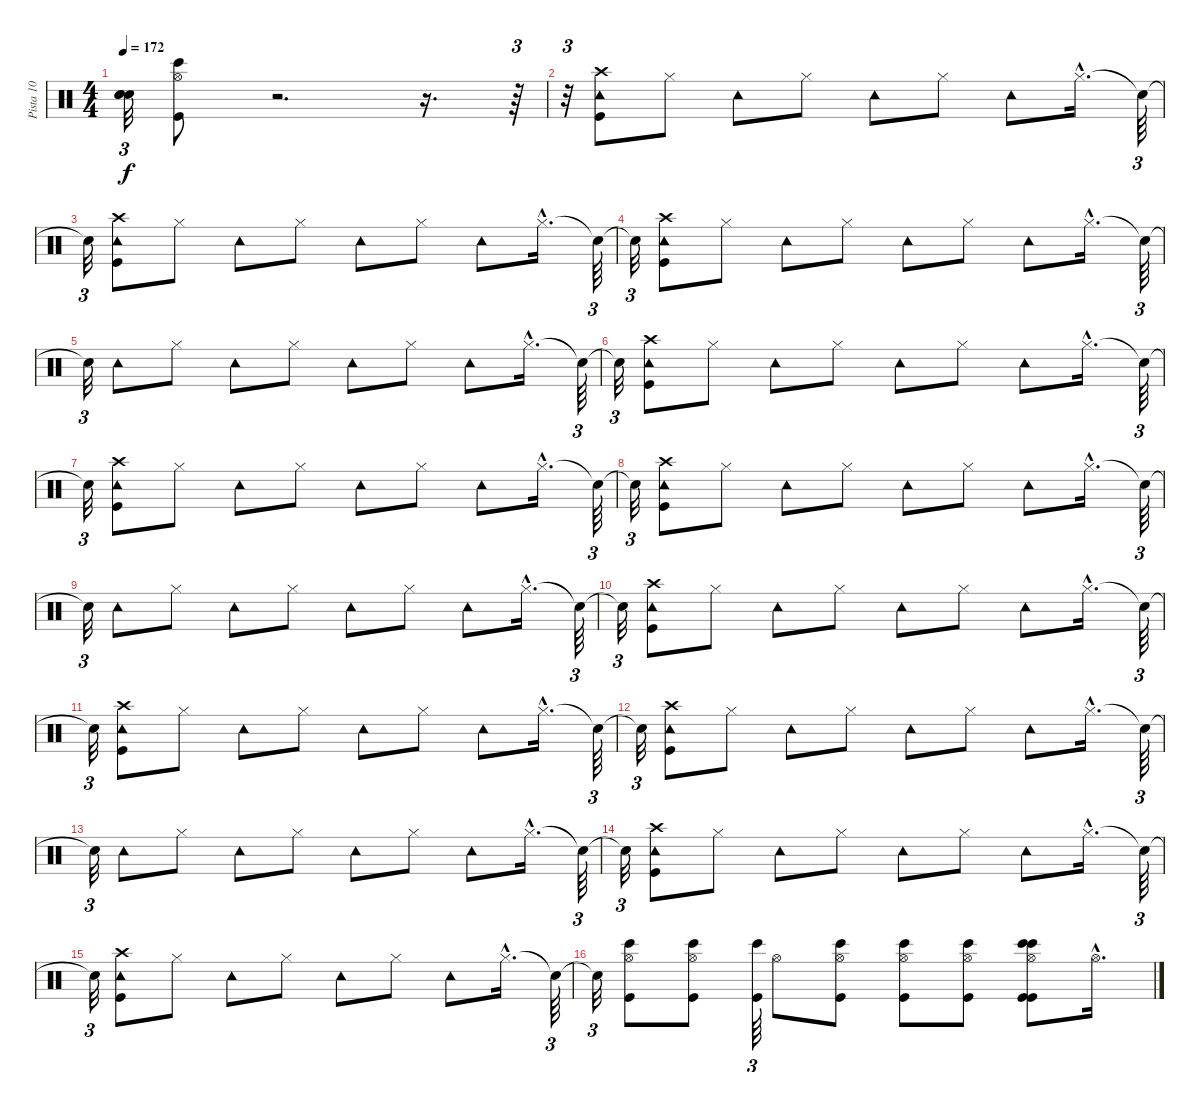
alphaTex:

\track ("Pista 10" "Pista 10") {instrument percussion}
\staff {score}
\articulation defaults
\ts (4 4)
\tempo 172
\clef neutral
\ks c
("Snare (hit)"{t} "Snare (hit)"{t} "Snare (hit)"{t}).32{tu (3 2) dy f} ("Bongo High (hit)" "Kick (hit)" "Hi-Hat (open)").8 r.2{d} r.16{d} r.64{tu (3 2)} |
r.32{tu (3 2)} ("Kick (hit)" "Crash high (hit)" "Tambourine (hit)").8 "Hi-Hat (closed)".8 "Tambourine (hit)".8 "Hi-Hat (closed)".8 "Tambourine (hit)".8 "Hi-Hat (closed)".8 "Tambourine (hit)".8 "Hi-Hat (closed)"{hac}.16{d} "Snare (hit)"{t}.64{tu (3 2)} |
"Snare (hit)"{t}.32{tu (3 2)} ("Crash high (hit)" "Kick (hit)" "Tambourine (hit)").8 "Hi-Hat (closed)".8 "Tambourine (hit)".8 "Hi-Hat (closed)".8 "Tambourine (hit)".8 "Hi-Hat (closed)".8 "Tambourine (hit)".8 "Hi-Hat (closed)"{hac}.16{d} "Snare (hit)"{t}.64{tu (3 2)} |
"Snare (hit)"{t}.32{tu (3 2)} ("Crash high (hit)" "Tambourine (hit)" "Kick (hit)").8 "Hi-Hat (closed)".8 "Tambourine (hit)".8 "Hi-Hat (closed)".8 "Tambourine (hit)".8 "Hi-Hat (closed)".8 "Tambourine (hit)".8 "Hi-Hat (closed)"{hac}.16{d} "Snare (hit)"{t}.64{tu (3 2)} |
"Snare (hit)"{t}.32{tu (3 2)} "Tambourine (hit)".8 "Hi-Hat (closed)".8 "Tambourine (hit)".8 "Hi-Hat (closed)".8 "Tambourine (hit)".8 "Hi-Hat (closed)".8 "Tambourine (hit)".8 "Hi-Hat (closed)"{hac}.16{d} "Snare (hit)"{t}.64{tu (3 2)} |
"Snare (hit)"{t}.32{tu (3 2)} ("Kick (hit)" "Crash high (hit)" "Tambourine (hit)").8 "Hi-Hat (closed)".8 "Tambourine (hit)".8 "Hi-Hat (closed)".8 "Tambourine (hit)".8 "Hi-Hat (closed)".8 "Tambourine (hit)".8 "Hi-Hat (closed)"{hac}.16{d} "Snare (hit)"{t}.64{tu (3 2)} |
"Snare (hit)"{t}.32{tu (3 2)} ("Crash high (hit)" "Kick (hit)" "Tambourine (hit)").8 "Hi-Hat (closed)".8 "Tambourine (hit)".8 "Hi-Hat (closed)".8 "Tambourine (hit)".8 "Hi-Hat (closed)".8 "Tambourine (hit)".8 "Hi-Hat (closed)"{hac}.16{d} "Snare (hit)"{t}.64{tu (3 2)} |
"Snare (hit)"{t}.32{tu (3 2)} ("Crash high (hit)" "Tambourine (hit)" "Kick (hit)").8 "Hi-Hat (closed)".8 "Tambourine (hit)".8 "Hi-Hat (closed)".8 "Tambourine (hit)".8 "Hi-Hat (closed)".8 "Tambourine (hit)".8 "Hi-Hat (closed)"{hac}.16{d} "Snare (hit)"{t}.64{tu (3 2)} |
"Snare (hit)"{t}.32{tu (3 2)} "Tambourine (hit)".8 "Hi-Hat (closed)".8 "Tambourine (hit)".8 "Hi-Hat (closed)".8 "Tambourine (hit)".8 "Hi-Hat (closed)".8 "Tambourine (hit)".8 "Hi-Hat (closed)"{hac}.16{d} "Snare (hit)"{t}.64{tu (3 2)} |
"Snare (hit)"{t}.32{tu (3 2)} ("Kick (hit)" "Crash high (hit)" "Tambourine (hit)").8 "Hi-Hat (closed)".8 "Tambourine (hit)".8 "Hi-Hat (closed)".8 "Tambourine (hit)".8 "Hi-Hat (closed)".8 "Tambourine (hit)".8 "Hi-Hat (closed)"{hac}.16{d} "Snare (hit)"{t}.64{tu (3 2)} |
"Snare (hit)"{t}.32{tu (3 2)} ("Crash high (hit)" "Kick (hit)" "Tambourine (hit)").8 "Hi-Hat (closed)".8 "Tambourine (hit)".8 "Hi-Hat (closed)".8 "Tambourine (hit)".8 "Hi-Hat (closed)".8 "Tambourine (hit)".8 "Hi-Hat (closed)"{hac}.16{d} "Snare (hit)"{t}.64{tu (3 2)} |
"Snare (hit)"{t}.32{tu (3 2)} ("Crash high (hit)" "Tambourine (hit)" "Kick (hit)").8 "Hi-Hat (closed)".8 "Tambourine (hit)".8 "Hi-Hat (closed)".8 "Tambourine (hit)".8 "Hi-Hat (closed)".8 "Tambourine (hit)".8 "Hi-Hat (closed)"{hac}.16{d} "Snare (hit)"{t}.64{tu (3 2)} |
"Snare (hit)"{t}.32{tu (3 2)} "Tambourine (hit)".8 "Hi-Hat (closed)".8 "Tambourine (hit)".8 "Hi-Hat (closed)".8 "Tambourine (hit)".8 "Hi-Hat (closed)".8 "Tambourine (hit)".8 "Hi-Hat (closed)"{hac}.16{d} "Snare (hit)"{t}.64{tu (3 2)} |
"Snare (hit)"{t}.32{tu (3 2)} ("Kick (hit)" "Crash high (hit)" "Tambourine (hit)").8 "Hi-Hat (closed)".8 "Tambourine (hit)".8 "Hi-Hat (closed)".8 "Tambourine (hit)".8 "Hi-Hat (closed)".8 "Tambourine (hit)".8 "Hi-Hat (closed)"{hac}.16{d} "Snare (hit)"{t}.64{tu (3 2)} |
"Snare (hit)"{t}.32{tu (3 2)} ("Crash high (hit)" "Kick (hit)" "Tambourine (hit)").8 "Hi-Hat (closed)".8 "Tambourine (hit)".8 "Hi-Hat (closed)".8 "Tambourine (hit)".8 "Hi-Hat (closed)".8 "Tambourine (hit)".8 "Hi-Hat (closed)"{hac}.16{d} "Snare (hit)"{t}.64{tu (3 2)} |
"Snare (hit)"{t}.32{tu (3 2)} ("Kick (hit)" "Bongo High (hit)" "Hi-Hat (open)").8 ("Kick (hit)" "Bongo High (hit)" "Hi-Hat (open)").8 ("Bongo High (hit)" "Kick (hit)").64{tu (3 2)} "Hi-Hat (open)".8 ("Bongo High (hit)" "Kick (hit)" "Hi-Hat (open)").8 ("Bongo High (hit)" "Kick (hit)" "Hi-Hat (open)").8 ("Bongo High (hit)" "Kick (hit)" "Hi-Hat (open)").8 ("Bongo High (hit)" "Kick (hit)" "Hi-Hat (open)" "Bongo High (hit)" "Kick (hit)").8 "Hi-Hat (open)"{hac}.16{d}
